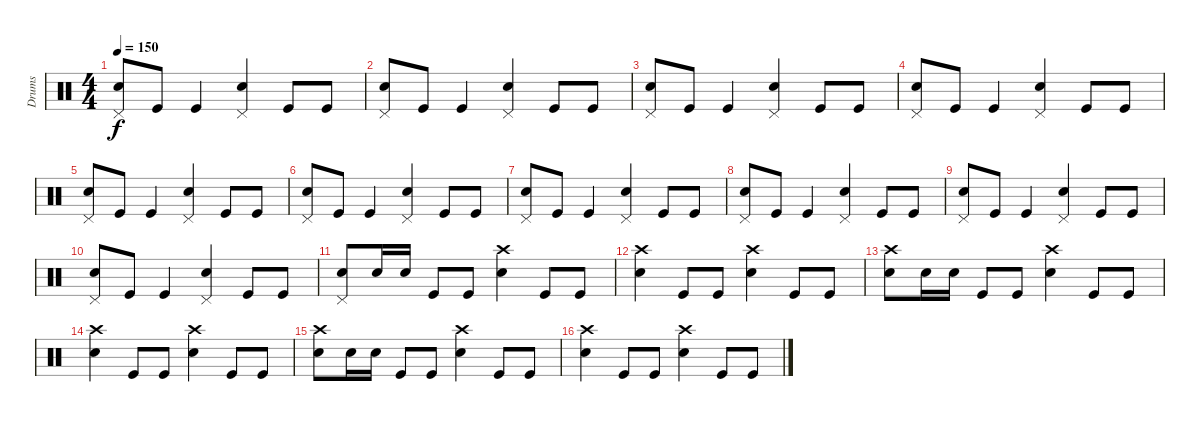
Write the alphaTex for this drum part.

\track ("Drums" "Drums") {instrument percussion}
\staff {score}
\articulation defaults
\ts (4 4)
\tempo 150
\clef neutral
\ks c
("Snare (hit) 2" "Pedal Hi-Hat (hit)").8{dy f} "Kick (hit)".8 "Kick (hit)".4 ("Snare (hit) 2" "Pedal Hi-Hat (hit)").4 "Kick (hit)".8 "Kick (hit)".8 |
("Snare (hit) 2" "Pedal Hi-Hat (hit)").8 "Kick (hit)".8 "Kick (hit)".4 ("Snare (hit) 2" "Pedal Hi-Hat (hit)").4 "Kick (hit)".8 "Kick (hit)".8 |
("Snare (hit) 2" "Pedal Hi-Hat (hit)").8 "Kick (hit)".8 "Kick (hit)".4 ("Snare (hit) 2" "Pedal Hi-Hat (hit)").4 "Kick (hit)".8 "Kick (hit)".8 |
("Snare (hit) 2" "Pedal Hi-Hat (hit)").8 "Kick (hit)".8 "Kick (hit)".4 ("Snare (hit) 2" "Pedal Hi-Hat (hit)").4 "Kick (hit)".8 "Kick (hit)".8 |
("Snare (hit) 2" "Pedal Hi-Hat (hit)").8 "Kick (hit)".8 "Kick (hit)".4 ("Snare (hit) 2" "Pedal Hi-Hat (hit)").4 "Kick (hit)".8 "Kick (hit)".8 |
("Snare (hit) 2" "Pedal Hi-Hat (hit)").8 "Kick (hit)".8 "Kick (hit)".4 ("Snare (hit) 2" "Pedal Hi-Hat (hit)").4 "Kick (hit)".8 "Kick (hit)".8 |
("Snare (hit) 2" "Pedal Hi-Hat (hit)").8 "Kick (hit)".8 "Kick (hit)".4 ("Snare (hit) 2" "Pedal Hi-Hat (hit)").4 "Kick (hit)".8 "Kick (hit)".8 |
("Snare (hit) 2" "Pedal Hi-Hat (hit)").8 "Kick (hit)".8 "Kick (hit)".4 ("Snare (hit) 2" "Pedal Hi-Hat (hit)").4 "Kick (hit)".8 "Kick (hit)".8 |
("Snare (hit) 2" "Pedal Hi-Hat (hit)").8 "Kick (hit)".8 "Kick (hit)".4 ("Snare (hit) 2" "Pedal Hi-Hat (hit)").4 "Kick (hit)".8 "Kick (hit)".8 |
("Snare (hit) 2" "Pedal Hi-Hat (hit)").8 "Kick (hit)".8 "Kick (hit)".4 ("Snare (hit) 2" "Pedal Hi-Hat (hit)").4 "Kick (hit)".8 "Kick (hit)".8 |
("Snare (hit) 2" "Pedal Hi-Hat (hit)").8 "Snare (hit) 2".16 "Snare (hit) 2".16 "Kick (hit)".8 "Kick (hit)".8 ("Snare (hit) 2" "Crash high (hit)").4 "Kick (hit)".8 "Kick (hit)".8 |
("Snare (hit) 2" "Crash high (hit)").4 "Kick (hit)".8 "Kick (hit)".8 ("Snare (hit) 2" "Crash high (hit)").4 "Kick (hit)".8 "Kick (hit)".8 |
("Snare (hit) 2" "Crash high (hit)").8 "Snare (hit) 2".16 "Snare (hit) 2".16 "Kick (hit)".8 "Kick (hit)".8 ("Snare (hit) 2" "Crash high (hit)").4 "Kick (hit)".8 "Kick (hit)".8 |
("Snare (hit) 2" "Crash high (hit)").4 "Kick (hit)".8 "Kick (hit)".8 ("Snare (hit) 2" "Crash high (hit)").4 "Kick (hit)".8 "Kick (hit)".8 |
("Snare (hit) 2" "Crash high (hit)").8 "Snare (hit) 2".16 "Snare (hit) 2".16 "Kick (hit)".8 "Kick (hit)".8 ("Snare (hit) 2" "Crash high (hit)").4 "Kick (hit)".8 "Kick (hit)".8 |
("Snare (hit) 2" "Crash high (hit)").4 "Kick (hit)".8 "Kick (hit)".8 ("Snare (hit) 2" "Crash high (hit)").4 "Kick (hit)".8 "Kick (hit)".8
